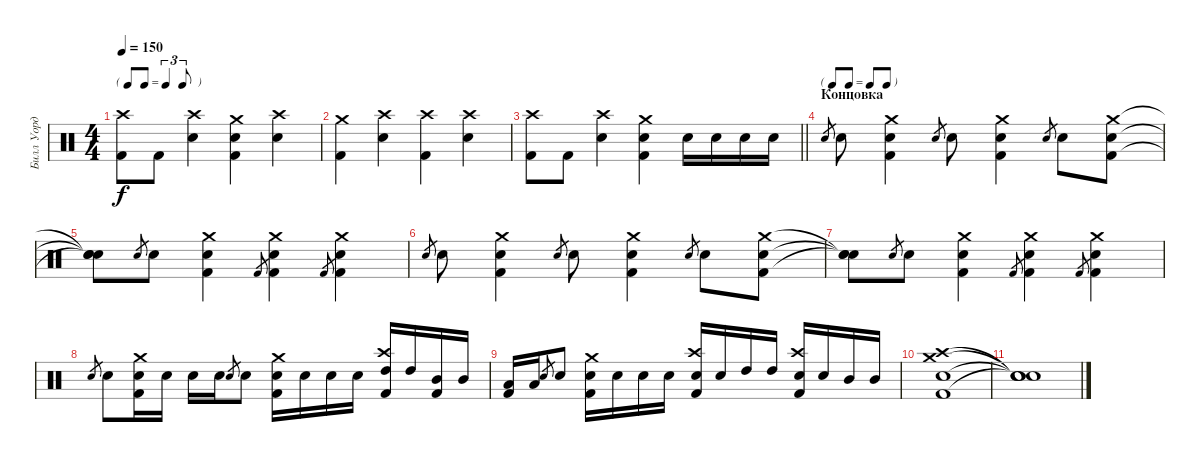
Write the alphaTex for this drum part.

\track ("Билл Уорд" "Билл Уорд") {instrument percussion}
\staff {score}
\articulation defaults
\ts (4 4)
\tf triplet8th
\tempo 150
\clef neutral
\ks c
("Kick (hit) 2" "Crash high (hit)").8{dy f} "Kick (hit) 2".8 ("Snare (hit) 2" "Crash high (hit)").4 ("Snare (hit) 2" "Kick (hit) 2" "Crash medium (hit)").4 ("Snare (hit) 2" "Crash high (hit)").4 |
("Kick (hit) 2" "Crash medium (hit)").4 ("Snare (hit) 2" "Crash high (hit)").4 ("Kick (hit) 2" "Crash high (hit)").4 ("Snare (hit) 2" "Crash high (hit)").4 |
\barLineRight lightlight
("Kick (hit) 2" "Crash high (hit)").8 "Kick (hit) 2".8 ("Snare (hit) 2" "Crash high (hit)").4 ("Snare (hit) 2" "Kick (hit) 2" "Crash medium (hit)").4 "Snare (hit) 2".16 "Snare (hit) 2".16 "Snare (hit) 2".16 "Snare (hit) 2".16 |
\tf none
\section ("" "Концовка")
"Snare (hit) 2".8{gr} "Snare (hit) 2".8 ("Crash medium (hit)" "Snare (hit) 2" "Kick (hit) 2").4 "Snare (hit) 2".8{gr} "Snare (hit) 2".8 ("Crash medium (hit)" "Snare (hit) 2" "Kick (hit) 2").4 "Snare (hit) 2".8{gr} "Snare (hit) 2".8 ("Crash medium (hit)" "Snare (hit) 2" "Kick (hit) 2").8 |
("Snare (hit)"{t} "Snare (hit)"{t} "Snare (hit)"{t}).8 "Snare (hit) 2".8{gr} "Snare (hit) 2".8 ("Crash medium (hit)" "Snare (hit) 2" "Kick (hit) 2").4 "Kick (hit) 2".8{gr} ("Crash medium (hit)" "Snare (hit) 2" "Kick (hit) 2").4 "Kick (hit) 2".8{gr} ("Crash medium (hit)" "Snare (hit) 2" "Kick (hit) 2").4 |
"Snare (hit) 2".8{gr} "Snare (hit) 2".8 ("Crash medium (hit)" "Snare (hit) 2" "Kick (hit) 2").4 "Snare (hit) 2".8{gr} "Snare (hit) 2".8 ("Crash medium (hit)" "Snare (hit) 2" "Kick (hit) 2").4 "Snare (hit) 2".8{gr} "Snare (hit) 2".8 ("Crash medium (hit)" "Snare (hit) 2" "Kick (hit) 2").8 |
("Snare (hit)"{t} "Snare (hit)"{t} "Snare (hit)"{t}).8 "Snare (hit) 2".8{gr} "Snare (hit) 2".8 ("Crash medium (hit)" "Snare (hit) 2" "Kick (hit) 2").4 "Kick (hit) 2".8{gr} ("Crash medium (hit)" "Snare (hit) 2" "Kick (hit) 2").4 "Kick (hit) 2".8{gr} ("Crash medium (hit)" "Snare (hit) 2" "Kick (hit) 2").4 |
"Snare (hit) 2".8{gr} "Snare (hit) 2".8 ("Crash medium (hit)" "Snare (hit) 2" "Kick (hit) 2").16 "Snare (hit) 2".16 "Snare (hit) 2".16 "Snare (hit) 2".16 "Snare (hit) 2".8{gr} "Snare (hit) 2".8 ("Crash medium (hit)" "Snare (hit) 2" "Kick (hit) 2").16 "Snare (hit) 2".16 "Snare (hit) 2".16 "Snare (hit) 2".16 ("Crash high (hit)" "High Tom (hit)" "Kick (hit) 2").16 "High Tom (hit)".16 ("Mid Tom (hit)" "Kick (hit) 2").16 "Mid Tom (hit)".16 |
("Low Tom (hit)" "Kick (hit) 2").16 "Low Tom (hit)".16 "Snare (hit) 2".8{gr} "Snare (hit) 2".8 ("Crash medium (hit)" "Snare (hit) 2" "Kick (hit) 2").16 "Snare (hit) 2".16 "Snare (hit) 2".16 "Snare (hit) 2".16 ("Crash high (hit)" "Snare (hit) 2" "Kick (hit) 2").16 "Snare (hit) 2".16 "High Tom (hit)".16 "High Tom (hit)".16 ("Crash high (hit)" "Snare (hit) 2" "Kick (hit) 2").16 "Snare (hit) 2".16 "Mid Tom (hit)".16 "Mid Tom (hit)".16 |
("Crash medium (hit)" "Crash high (hit)" "Snare (hit) 2" "Kick (hit) 2").1 |
("Snare (hit)"{t} "Snare (hit)"{t} "Snare (hit)"{t} "Snare (hit)"{t}).1
